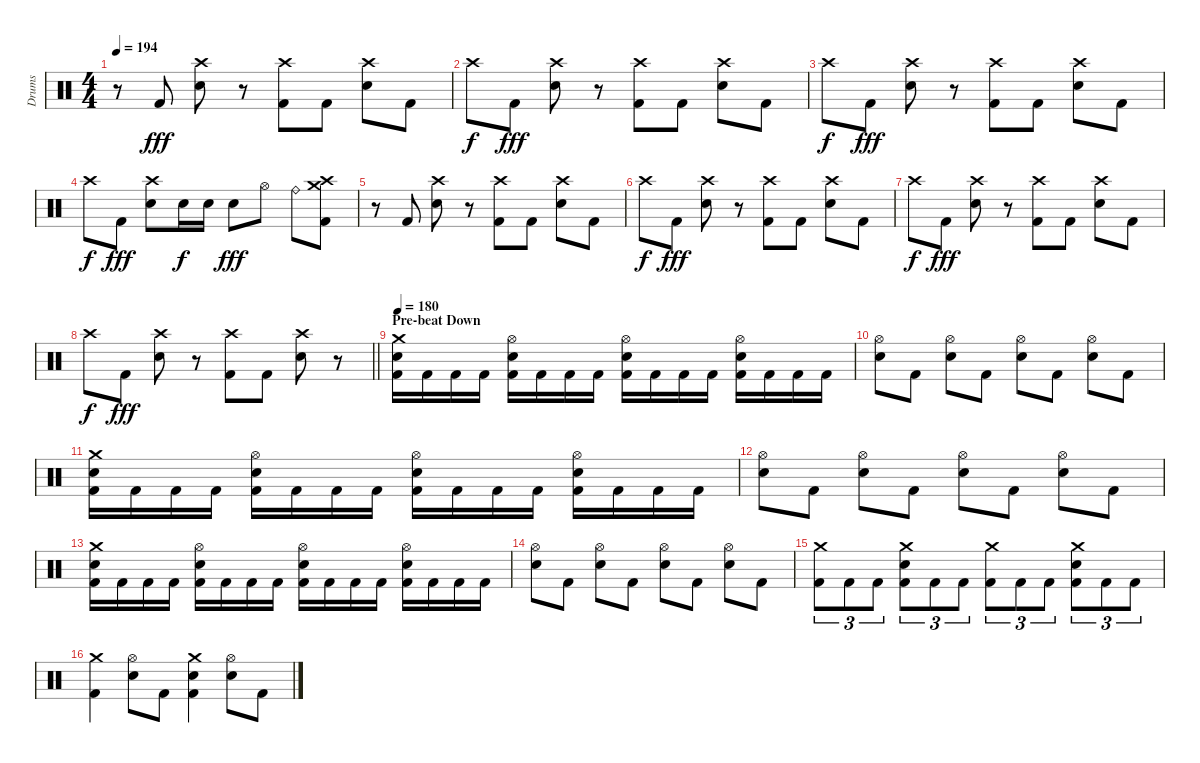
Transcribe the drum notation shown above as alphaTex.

\track ("Drums" "Drums") {instrument percussion}
\staff {score}
\articulation defaults
\ts (4 4)
\tempo 194
\clef neutral
\ks c
r.8{dy fff} "Kick (hit) 2".8 ("Crash high (hit)" "Electric Snare (hit)").8 r.8 ("Crash high (hit)" "Kick (hit) 2").8 "Kick (hit) 2".8 ("Crash high (hit)" "Electric Snare (hit)").8 "Kick (hit) 2".8 |
"Crash high (hit)".8{dy f} "Kick (hit) 2".8{dy fff} ("Crash high (hit)" "Electric Snare (hit)").8 r.8 ("Crash high (hit)" "Kick (hit) 2").8 "Kick (hit) 2".8 ("Crash high (hit)" "Electric Snare (hit)").8 "Kick (hit) 2".8 |
"Crash high (hit)".8{dy f} "Kick (hit) 2".8{dy fff} ("Crash high (hit)" "Electric Snare (hit)").8 r.8 ("Crash high (hit)" "Kick (hit) 2").8 "Kick (hit) 2".8 ("Crash high (hit)" "Electric Snare (hit)").8 "Kick (hit) 2".8 |
"Crash high (hit)".8{dy f} "Kick (hit) 2".8{dy fff} ("Crash high (hit)" "Electric Snare (hit)").8 "Electric Snare (hit)".16{dy f} "Electric Snare (hit)".16 "Electric Snare (hit)".8{dy fff} "Hi-Hat (open)".8 "Ride (bell)".8 ("Crash medium (hit)" "Crash high (hit)" "Kick (hit) 2").8 |
r.8 "Kick (hit) 2".8 ("Crash high (hit)" "Electric Snare (hit)").8 r.8 ("Crash high (hit)" "Kick (hit) 2").8 "Kick (hit) 2".8 ("Crash high (hit)" "Electric Snare (hit)").8 "Kick (hit) 2".8 |
"Crash high (hit)".8{dy f} "Kick (hit) 2".8{dy fff} ("Crash high (hit)" "Electric Snare (hit)").8 r.8 ("Crash high (hit)" "Kick (hit) 2").8 "Kick (hit) 2".8 ("Crash high (hit)" "Electric Snare (hit)").8 "Kick (hit) 2".8 |
"Crash high (hit)".8{dy f} "Kick (hit) 2".8{dy fff} ("Crash high (hit)" "Electric Snare (hit)").8 r.8 ("Crash high (hit)" "Kick (hit) 2").8 "Kick (hit) 2".8 ("Crash high (hit)" "Electric Snare (hit)").8 "Kick (hit) 2".8 |
\barLineRight lightlight "Crash high (hit)".8{dy f} "Kick (hit) 2".8{dy fff}
("Crash high (hit)" "Electric Snare (hit)").8 r.8 ("Crash high (hit)" "Kick (hit) 2").8 "Kick (hit) 2".8 ("Crash high (hit)" "Electric Snare (hit)").8 r.8 |
\section ("" "Pre-beat Down")
\tempo 180
("Crash medium (hit)" "Electric Snare (hit)" "Kick (hit) 2").16 "Kick (hit) 2".16 "Kick (hit) 2".16 "Kick (hit) 2".16 ("Hi-Hat (open)" "Electric Snare (hit)" "Kick (hit) 2").16 "Kick (hit) 2".16 "Kick (hit) 2".16 "Kick (hit) 2".16 ("Hi-Hat (open)" "Electric Snare (hit)" "Kick (hit) 2").16 "Kick (hit) 2".16 "Kick (hit) 2".16 "Kick (hit) 2".16 ("Hi-Hat (open)" "Electric Snare (hit)" "Kick (hit) 2").16 "Kick (hit) 2".16 "Kick (hit) 2".16 "Kick (hit) 2".16 |
("Hi-Hat (open)" "Electric Snare (hit)").8 "Kick (hit) 2".8 ("Hi-Hat (open)" "Electric Snare (hit)").8 "Kick (hit) 2".8 ("Hi-Hat (open)" "Electric Snare (hit)").8 "Kick (hit) 2".8 ("Hi-Hat (open)" "Electric Snare (hit)").8 "Kick (hit) 2".8 |
("Crash medium (hit)" "Electric Snare (hit)" "Kick (hit) 2").16 "Kick (hit) 2".16 "Kick (hit) 2".16 "Kick (hit) 2".16 ("Hi-Hat (open)" "Electric Snare (hit)" "Kick (hit) 2").16 "Kick (hit) 2".16 "Kick (hit) 2".16 "Kick (hit) 2".16 ("Hi-Hat (open)" "Electric Snare (hit)" "Kick (hit) 2").16 "Kick (hit) 2".16 "Kick (hit) 2".16 "Kick (hit) 2".16 ("Hi-Hat (open)" "Electric Snare (hit)" "Kick (hit) 2").16 "Kick (hit) 2".16 "Kick (hit) 2".16 "Kick (hit) 2".16 |
("Hi-Hat (open)" "Electric Snare (hit)").8 "Kick (hit) 2".8 ("Hi-Hat (open)" "Electric Snare (hit)").8 "Kick (hit) 2".8 ("Hi-Hat (open)" "Electric Snare (hit)").8 "Kick (hit) 2".8 ("Hi-Hat (open)" "Electric Snare (hit)").8 "Kick (hit) 2".8 |
("Crash medium (hit)" "Electric Snare (hit)" "Kick (hit) 2").16 "Kick (hit) 2".16 "Kick (hit) 2".16 "Kick (hit) 2".16 ("Hi-Hat (open)" "Electric Snare (hit)" "Kick (hit) 2").16 "Kick (hit) 2".16 "Kick (hit) 2".16 "Kick (hit) 2".16 ("Hi-Hat (open)" "Electric Snare (hit)" "Kick (hit) 2").16 "Kick (hit) 2".16 "Kick (hit) 2".16 "Kick (hit) 2".16 ("Hi-Hat (open)" "Electric Snare (hit)" "Kick (hit) 2").16 "Kick (hit) 2".16 "Kick (hit) 2".16 "Kick (hit) 2".16 |
("Hi-Hat (open)" "Electric Snare (hit)").8 "Kick (hit) 2".8 ("Hi-Hat (open)" "Electric Snare (hit)").8 "Kick (hit) 2".8 ("Hi-Hat (open)" "Electric Snare (hit)").8 "Kick (hit) 2".8 ("Hi-Hat (open)" "Electric Snare (hit)").8 "Kick (hit) 2".8 |
("Crash medium (hit)" "Kick (hit) 2").8{tu (3 2)} "Kick (hit) 2".8{tu (3 2)} "Kick (hit) 2".8{tu (3 2)} ("Crash medium (hit)" "Electric Snare (hit)" "Kick (hit) 2").8{tu (3 2)} "Kick (hit) 2".8{tu (3 2)} "Kick (hit) 2".8{tu (3 2)} ("Crash medium (hit)" "Kick (hit) 2").8{tu (3 2)} "Kick (hit) 2".8{tu (3 2)} "Kick (hit) 2".8{tu (3 2)} ("Crash medium (hit)" "Electric Snare (hit)" "Kick (hit) 2").8{tu (3 2)} "Kick (hit) 2".8{tu (3 2)} "Kick (hit) 2".8{tu (3 2)} |
("Crash medium (hit)" "Kick (hit) 2").4 ("Hi-Hat (open)" "Electric Snare (hit)").8 "Kick (hit) 2".8 ("Crash medium (hit)" "Electric Snare (hit)" "Kick (hit) 2").4 ("Hi-Hat (open)" "Electric Snare (hit)").8 "Kick (hit) 2".8
